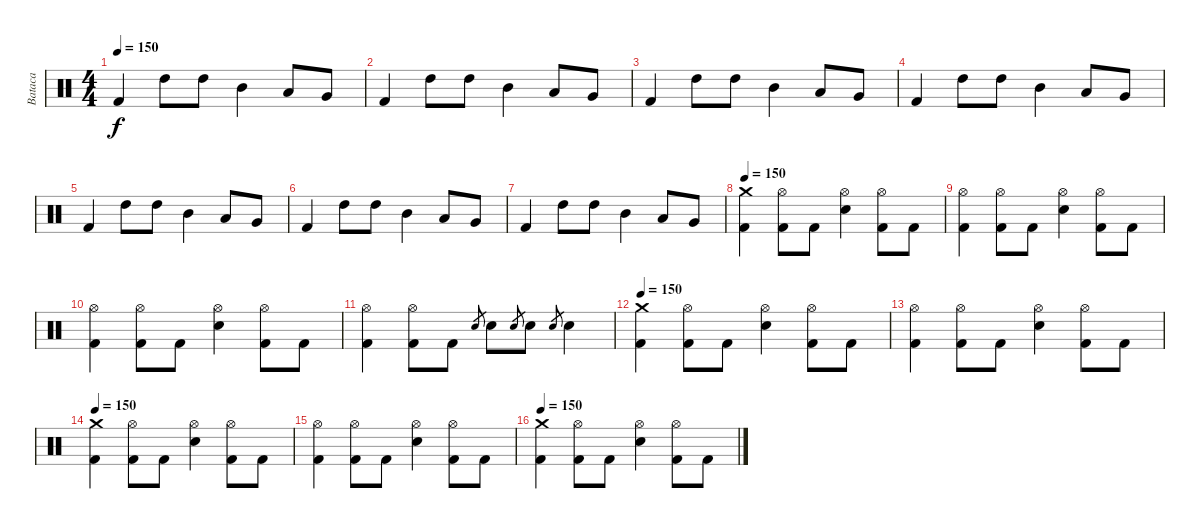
\track ("Bataca" "Bataca") {instrument percussion}
\staff {score}
\articulation defaults
\ts (4 4)
\tempo 150
\clef neutral
\ks c "Kick (hit) 2".4{dy f} "High Tom (hit)".8 "High Tom (hit)".8 "Mid Tom (hit)".4 "Low Tom (hit)".8 "Very Low Tom (hit)".8
|
"Kick (hit) 2".4 "High Tom (hit)".8 "High Tom (hit)".8 "Mid Tom (hit)".4 "Low Tom (hit)".8 "Very Low Tom (hit)".8 |
"Kick (hit) 2".4 "High Tom (hit)".8 "High Tom (hit)".8 "Mid Tom (hit)".4 "Low Tom (hit)".8 "Very Low Tom (hit)".8 |
"Kick (hit) 2".4 "High Tom (hit)".8 "High Tom (hit)".8 "Mid Tom (hit)".4 "Low Tom (hit)".8 "Very Low Tom (hit)".8 |
"Kick (hit) 2".4 "High Tom (hit)".8 "High Tom (hit)".8 "Mid Tom (hit)".4 "Low Tom (hit)".8 "Very Low Tom (hit)".8 |
"Kick (hit) 2".4 "High Tom (hit)".8 "High Tom (hit)".8 "Mid Tom (hit)".4 "Low Tom (hit)".8 "Very Low Tom (hit)".8 |
"Kick (hit) 2".4 "High Tom (hit)".8 "High Tom (hit)".8 "Mid Tom (hit)".4 "Low Tom (hit)".8 "Very Low Tom (hit)".8 |
\tempo 150
("Crash medium (hit)" "Kick (hit) 2").4 ("Hi-Hat (open)" "Kick (hit) 2").8 "Kick (hit) 2".8 ("Hi-Hat (open)" "Electric Snare (hit)").4 ("Hi-Hat (open)" "Kick (hit) 2").8 "Kick (hit) 2".8 |
("Hi-Hat (open)" "Kick (hit) 2").4 ("Hi-Hat (open)" "Kick (hit) 2").8 "Kick (hit) 2".8 ("Hi-Hat (open)" "Electric Snare (hit)").4 ("Hi-Hat (open)" "Kick (hit) 2").8 "Kick (hit) 2".8 |
("Hi-Hat (open)" "Kick (hit) 2").4 ("Hi-Hat (open)" "Kick (hit) 2").8 "Kick (hit) 2".8 ("Hi-Hat (open)" "Electric Snare (hit)").4 ("Hi-Hat (open)" "Kick (hit) 2").8 "Kick (hit) 2".8 |
("Hi-Hat (open)" "Kick (hit) 2").4 ("Hi-Hat (open)" "Kick (hit) 2").8 "Kick (hit) 2".8 "Electric Snare (hit)".8{gr} "Electric Snare (hit)".8 "Electric Snare (hit)".8{gr} "Electric Snare (hit)".8 "Electric Snare (hit)".8{gr} "Electric Snare (hit)".4 |
\tempo 150
("Crash medium (hit)" "Kick (hit) 2").4 ("Hi-Hat (open)" "Kick (hit) 2").8 "Kick (hit) 2".8 ("Hi-Hat (open)" "Electric Snare (hit)").4 ("Hi-Hat (open)" "Kick (hit) 2").8 "Kick (hit) 2".8 |
("Hi-Hat (open)" "Kick (hit) 2").4 ("Hi-Hat (open)" "Kick (hit) 2").8 "Kick (hit) 2".8 ("Hi-Hat (open)" "Electric Snare (hit)").4 ("Hi-Hat (open)" "Kick (hit) 2").8 "Kick (hit) 2".8 |
\tempo 150
("Crash medium (hit)" "Kick (hit) 2").4 ("Hi-Hat (open)" "Kick (hit) 2").8 "Kick (hit) 2".8 ("Hi-Hat (open)" "Electric Snare (hit)").4 ("Hi-Hat (open)" "Kick (hit) 2").8 "Kick (hit) 2".8 |
("Hi-Hat (open)" "Kick (hit) 2").4 ("Hi-Hat (open)" "Kick (hit) 2").8 "Kick (hit) 2".8 ("Hi-Hat (open)" "Electric Snare (hit)").4 ("Hi-Hat (open)" "Kick (hit) 2").8 "Kick (hit) 2".8 |
\tempo 150
("Crash medium (hit)" "Kick (hit) 2").4 ("Hi-Hat (open)" "Kick (hit) 2").8 "Kick (hit) 2".8 ("Hi-Hat (open)" "Electric Snare (hit)").4 ("Hi-Hat (open)" "Kick (hit) 2").8 "Kick (hit) 2".8
